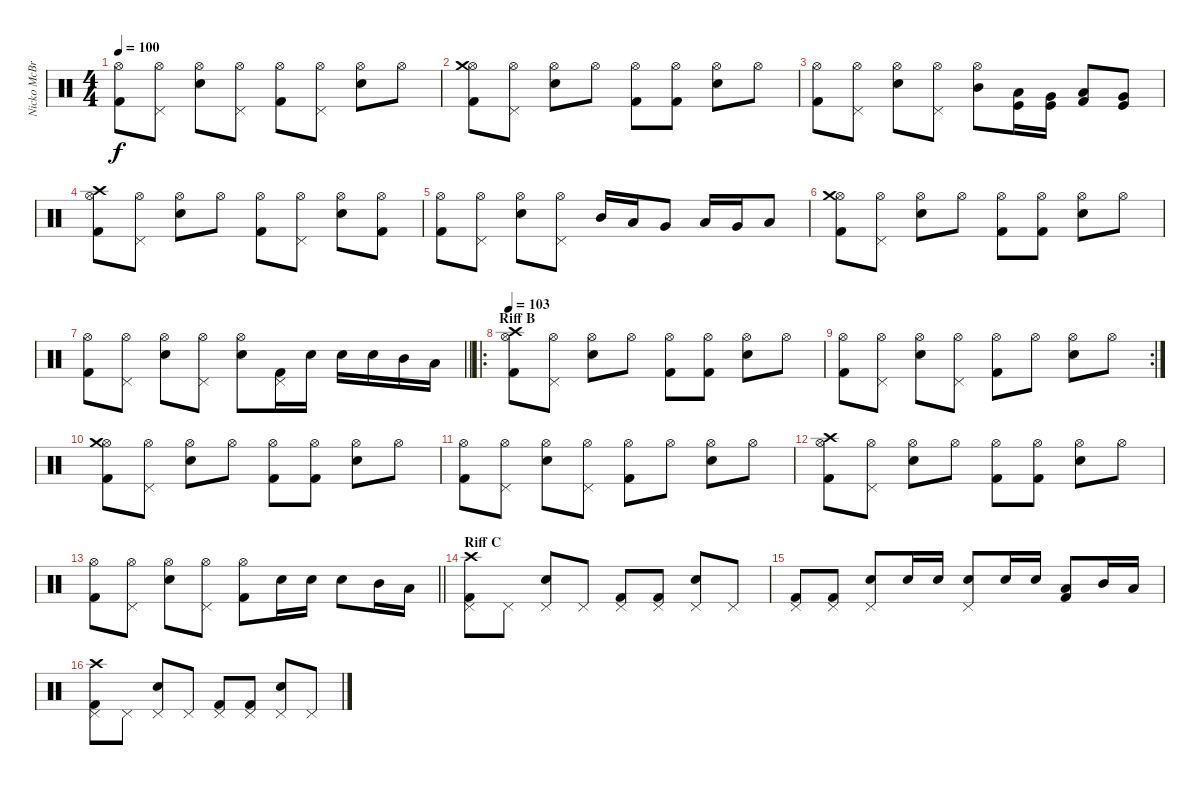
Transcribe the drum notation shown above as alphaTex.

\track ("Nicko McBrain" "Nicko McBr") {instrument percussion}
\staff {score}
\articulation defaults
\ts (4 4)
\tempo 100
\clef neutral
\ks c
("Kick (hit) 2" "Hi-Hat (open)").8{dy f} ("Pedal Hi-Hat (hit)" "Hi-Hat (open)").8 ("Snare (hit) 2" "Hi-Hat (open)").8 ("Pedal Hi-Hat (hit)" "Hi-Hat (open)").8 ("Kick (hit) 2" "Hi-Hat (open)").8 ("Pedal Hi-Hat (hit)" "Hi-Hat (open)").8 ("Snare (hit) 2" "Hi-Hat (open)").8 "Hi-Hat (open)".8 |
("Kick (hit) 2" "Hi-Hat (open)" "Crash medium (hit)").8 ("Pedal Hi-Hat (hit)" "Hi-Hat (open)").8 ("Snare (hit) 2" "Hi-Hat (open)").8 "Hi-Hat (open)".8 ("Kick (hit) 2" "Hi-Hat (open)").8 ("Kick (hit) 2" "Hi-Hat (open)").8 ("Snare (hit) 2" "Hi-Hat (open)").8 "Hi-Hat (open)".8 |
("Kick (hit) 2" "Hi-Hat (open)").8 ("Pedal Hi-Hat (hit)" "Hi-Hat (open)").8 ("Snare (hit) 2" "Hi-Hat (open)").8 ("Pedal Hi-Hat (hit)" "Hi-Hat (open)").8 ("Mid Tom (hit)" "Hi-Hat (open)").8 ("Low Tom (hit)" "Kick (hit)").16 ("Very Low Tom (hit)" "Kick (hit)").16 ("Low Floor Tom (hit)" "Kick (hit) 2").8 ("Very Low Tom (hit)" "Kick (hit)").8 |
("Kick (hit) 2" "Hi-Hat (open)" "Crash high (hit)").8 ("Pedal Hi-Hat (hit)" "Hi-Hat (open)").8 ("Snare (hit) 2" "Hi-Hat (open)").8 "Hi-Hat (open)".8 ("Kick (hit) 2" "Hi-Hat (open)").8 ("Pedal Hi-Hat (hit)" "Hi-Hat (open)").8 ("Snare (hit) 2" "Hi-Hat (open)").8 ("Kick (hit) 2" "Hi-Hat (open)").8 |
("Kick (hit) 2" "Hi-Hat (open)").8 ("Pedal Hi-Hat (hit)" "Hi-Hat (open)").8 ("Snare (hit) 2" "Hi-Hat (open)").8 ("Pedal Hi-Hat (hit)" "Hi-Hat (open)").8 "Mid Tom (hit)".16 "Low Tom (hit)".16 "Very Low Tom (hit)".8 "Low Tom (hit)".16 "Very Low Tom (hit)".16 "Low Floor Tom (hit)".8 |
("Kick (hit) 2" "Hi-Hat (open)" "Crash medium (hit)").8 ("Pedal Hi-Hat (hit)" "Hi-Hat (open)").8 ("Snare (hit) 2" "Hi-Hat (open)").8 "Hi-Hat (open)".8 ("Kick (hit) 2" "Hi-Hat (open)").8 ("Kick (hit) 2" "Hi-Hat (open)").8 ("Snare (hit) 2" "Hi-Hat (open)").8 "Hi-Hat (open)".8 |
\barLineRight lightlight
("Kick (hit) 2" "Hi-Hat (open)").8 ("Pedal Hi-Hat (hit)" "Hi-Hat (open)").8 ("Snare (hit) 2" "Hi-Hat (open)").8 ("Pedal Hi-Hat (hit)" "Hi-Hat (open)").8 ("Snare (hit) 2" "Hi-Hat (open)").8 ("Kick (hit) 2" "Pedal Hi-Hat (hit)").16 "Snare (hit) 2".16 "Snare (hit) 2".16 "Snare (hit) 2".16 "Mid Tom (hit)".16 "Low Tom (hit)".16 |
\ro
\section ("" "Riff B")
\tempo 103
("Kick (hit) 2" "Hi-Hat (open)" "Crash high (hit)").8 ("Pedal Hi-Hat (hit)" "Hi-Hat (open)").8 ("Snare (hit) 2" "Hi-Hat (open)").8 "Hi-Hat (open)".8 ("Kick (hit) 2" "Hi-Hat (open)").8 ("Kick (hit) 2" "Hi-Hat (open)").8 ("Snare (hit) 2" "Hi-Hat (open)").8 "Hi-Hat (open)".8 |
\rc 2
("Kick (hit) 2" "Hi-Hat (open)").8 ("Pedal Hi-Hat (hit)" "Hi-Hat (open)").8 ("Snare (hit) 2" "Hi-Hat (open)").8 ("Pedal Hi-Hat (hit)" "Hi-Hat (open)").8 ("Kick (hit) 2" "Hi-Hat (open)").8 "Hi-Hat (open)".8 ("Snare (hit) 2" "Hi-Hat (open)").8 "Hi-Hat (open)".8 |
("Kick (hit) 2" "Hi-Hat (open)" "Crash medium (hit)").8 ("Pedal Hi-Hat (hit)" "Hi-Hat (open)").8 ("Snare (hit) 2" "Hi-Hat (open)").8 "Hi-Hat (open)".8 ("Kick (hit) 2" "Hi-Hat (open)").8 ("Kick (hit) 2" "Hi-Hat (open)").8 ("Snare (hit) 2" "Hi-Hat (open)").8 "Hi-Hat (open)".8 |
("Kick (hit) 2" "Hi-Hat (open)").8 ("Pedal Hi-Hat (hit)" "Hi-Hat (open)").8 ("Snare (hit) 2" "Hi-Hat (open)").8 ("Pedal Hi-Hat (hit)" "Hi-Hat (open)").8 ("Kick (hit) 2" "Hi-Hat (open)").8 "Hi-Hat (open)".8 ("Snare (hit) 2" "Hi-Hat (open)").8 "Hi-Hat (open)".8 |
("Kick (hit) 2" "Hi-Hat (open)" "Crash high (hit)").8 ("Pedal Hi-Hat (hit)" "Hi-Hat (open)").8 ("Snare (hit) 2" "Hi-Hat (open)").8 "Hi-Hat (open)".8 ("Kick (hit) 2" "Hi-Hat (open)").8 ("Kick (hit) 2" "Hi-Hat (open)").8 ("Snare (hit) 2" "Hi-Hat (open)").8 "Hi-Hat (open)".8 |
\barLineRight lightlight
("Kick (hit) 2" "Hi-Hat (open)").8 ("Pedal Hi-Hat (hit)" "Hi-Hat (open)").8 ("Snare (hit) 2" "Hi-Hat (open)").8 ("Pedal Hi-Hat (hit)" "Hi-Hat (open)").8 ("Kick (hit) 2" "Hi-Hat (open)").8 "Snare (hit) 2".16 "Snare (hit) 2".16 "Snare (hit) 2".8 "Mid Tom (hit)".16 "Low Tom (hit)".16 |
\section ("" "Riff C")
("Kick (hit) 2" "Pedal Hi-Hat (hit)" "Crash high (hit)").8 "Pedal Hi-Hat (hit)".8 ("Snare (hit) 2" "Pedal Hi-Hat (hit)").8 "Pedal Hi-Hat (hit)".8 ("Kick (hit) 2" "Pedal Hi-Hat (hit)").8 ("Kick (hit) 2" "Pedal Hi-Hat (hit)").8 ("Snare (hit) 2" "Pedal Hi-Hat (hit)").8 "Pedal Hi-Hat (hit)".8 |
("Kick (hit) 2" "Pedal Hi-Hat (hit)").8 ("Kick (hit) 2" "Pedal Hi-Hat (hit)").8 ("Snare (hit) 2" "Pedal Hi-Hat (hit)").8 "Snare (hit) 2".16 "Snare (hit) 2".16 ("Snare (hit) 2" "Pedal Hi-Hat (hit)").8 "Snare (hit) 2".16 "Snare (hit) 2".16 ("Kick (hit) 2" "Low Tom (hit)").8 "Mid Tom (hit)".16 "Low Tom (hit)".16 |
("Kick (hit) 2" "Pedal Hi-Hat (hit)" "Crash high (hit)").8 "Pedal Hi-Hat (hit)".8 ("Snare (hit) 2" "Pedal Hi-Hat (hit)").8 "Pedal Hi-Hat (hit)".8 ("Kick (hit) 2" "Pedal Hi-Hat (hit)").8 ("Kick (hit) 2" "Pedal Hi-Hat (hit)").8 ("Snare (hit) 2" "Pedal Hi-Hat (hit)").8 "Pedal Hi-Hat (hit)".8
